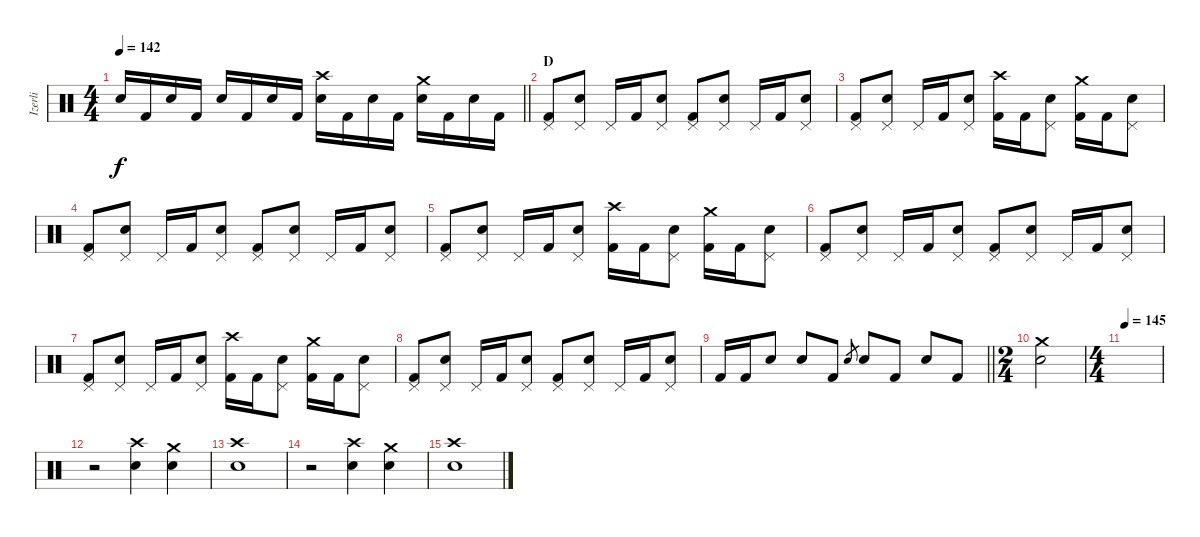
\track ("Izerli" "Izerli") {instrument percussion}
\staff {score}
\articulation defaults
\ts (4 4)
\tempo 142
\clef neutral
\barLineRight lightlight
\ks c "Electric Snare (hit)".16{dy f} "Kick (hit) 2".16 "Electric Snare (hit)".16 "Kick (hit) 2".16 "Electric Snare (hit)".16 "Kick (hit) 2".16 "Electric Snare (hit)".16 "Kick (hit) 2".16
("Crash high (hit)" "Electric Snare (hit)").16 "Kick (hit) 2".16 "Electric Snare (hit)".16 "Kick (hit) 2".16 ("Crash medium (hit)" "Electric Snare (hit)").16 "Kick (hit) 2".16 "Electric Snare (hit)".16 "Kick (hit) 2".16 |
\section ("" "D")
("Pedal Hi-Hat (hit)" "Kick (hit) 2").8 ("Pedal Hi-Hat (hit)" "Electric Snare (hit)").8 "Pedal Hi-Hat (hit)".16 "Kick (hit) 2".16 ("Pedal Hi-Hat (hit)" "Electric Snare (hit)").8 ("Pedal Hi-Hat (hit)" "Kick (hit) 2").8 ("Pedal Hi-Hat (hit)" "Electric Snare (hit)").8 "Pedal Hi-Hat (hit)".16 "Kick (hit) 2".16 ("Pedal Hi-Hat (hit)" "Electric Snare (hit)").8 |
("Pedal Hi-Hat (hit)" "Kick (hit) 2").8 ("Pedal Hi-Hat (hit)" "Electric Snare (hit)").8 "Pedal Hi-Hat (hit)".16 "Kick (hit) 2".16 ("Pedal Hi-Hat (hit)" "Electric Snare (hit)").8 ("Crash high (hit)" "Kick (hit) 2").16 "Kick (hit) 2".16 ("Pedal Hi-Hat (hit)" "Electric Snare (hit)").8 ("Crash medium (hit)" "Kick (hit) 2").16 "Kick (hit) 2".16 ("Pedal Hi-Hat (hit)" "Electric Snare (hit)").8 |
("Pedal Hi-Hat (hit)" "Kick (hit) 2").8 ("Pedal Hi-Hat (hit)" "Electric Snare (hit)").8 "Pedal Hi-Hat (hit)".16 "Kick (hit) 2".16 ("Pedal Hi-Hat (hit)" "Electric Snare (hit)").8 ("Pedal Hi-Hat (hit)" "Kick (hit) 2").8 ("Pedal Hi-Hat (hit)" "Electric Snare (hit)").8 "Pedal Hi-Hat (hit)".16 "Kick (hit) 2".16 ("Pedal Hi-Hat (hit)" "Electric Snare (hit)").8 |
("Pedal Hi-Hat (hit)" "Kick (hit) 2").8 ("Pedal Hi-Hat (hit)" "Electric Snare (hit)").8 "Pedal Hi-Hat (hit)".16 "Kick (hit) 2".16 ("Pedal Hi-Hat (hit)" "Electric Snare (hit)").8 ("Crash high (hit)" "Kick (hit) 2").16 "Kick (hit) 2".16 ("Pedal Hi-Hat (hit)" "Electric Snare (hit)").8 ("Crash medium (hit)" "Kick (hit) 2").16 "Kick (hit) 2".16 ("Pedal Hi-Hat (hit)" "Electric Snare (hit)").8 |
("Pedal Hi-Hat (hit)" "Kick (hit) 2").8 ("Pedal Hi-Hat (hit)" "Electric Snare (hit)").8 "Pedal Hi-Hat (hit)".16 "Kick (hit) 2".16 ("Pedal Hi-Hat (hit)" "Electric Snare (hit)").8 ("Pedal Hi-Hat (hit)" "Kick (hit) 2").8 ("Pedal Hi-Hat (hit)" "Electric Snare (hit)").8 "Pedal Hi-Hat (hit)".16 "Kick (hit) 2".16 ("Pedal Hi-Hat (hit)" "Electric Snare (hit)").8 |
("Pedal Hi-Hat (hit)" "Kick (hit) 2").8 ("Pedal Hi-Hat (hit)" "Electric Snare (hit)").8 "Pedal Hi-Hat (hit)".16 "Kick (hit) 2".16 ("Pedal Hi-Hat (hit)" "Electric Snare (hit)").8 ("Crash high (hit)" "Kick (hit) 2").16 "Kick (hit) 2".16 ("Pedal Hi-Hat (hit)" "Electric Snare (hit)").8 ("Crash medium (hit)" "Kick (hit) 2").16 "Kick (hit) 2".16 ("Pedal Hi-Hat (hit)" "Electric Snare (hit)").8 |
("Pedal Hi-Hat (hit)" "Kick (hit) 2").8 ("Pedal Hi-Hat (hit)" "Electric Snare (hit)").8 "Pedal Hi-Hat (hit)".16 "Kick (hit) 2".16 ("Pedal Hi-Hat (hit)" "Electric Snare (hit)").8 ("Pedal Hi-Hat (hit)" "Kick (hit) 2").8 ("Pedal Hi-Hat (hit)" "Electric Snare (hit)").8 "Pedal Hi-Hat (hit)".16 "Kick (hit) 2".16 ("Pedal Hi-Hat (hit)" "Electric Snare (hit)").8 |
\barLineRight lightlight "Kick (hit) 2".16 "Kick (hit) 2".16 "Electric Snare (hit)".8 "Electric Snare (hit)".8 "Kick (hit) 2".8 "Electric Snare (hit)".8{gr} "Electric Snare (hit)".8 "Kick (hit) 2".8 "Electric Snare (hit)".8 "Kick (hit) 2".8
|
\ts (2 4)
("Crash medium (hit)" "Electric Snare (hit)").2 |
\ts (4 4)
\tempo 145
|
r.2 ("Crash high (hit)" "Electric Snare (hit)").4 ("Crash medium (hit)" "Electric Snare (hit)").4 |
("Crash high (hit)" "Electric Snare (hit)").1 |
r.2 ("Crash high (hit)" "Electric Snare (hit)").4 ("Crash medium (hit)" "Electric Snare (hit)").4 |
("Crash high (hit)" "Electric Snare (hit)").1
